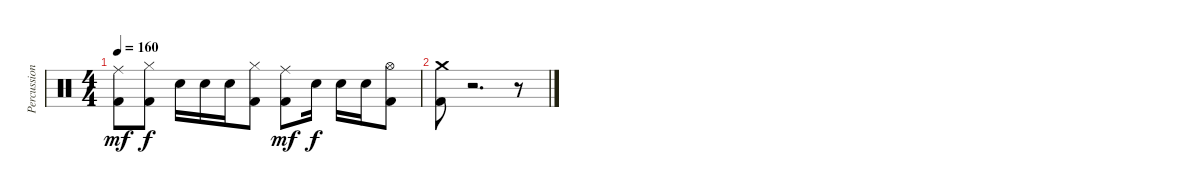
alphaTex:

\track ("Percussions" "Percussion") {instrument percussion}
\staff {score}
\articulation defaults
\ts (4 4)
\tempo 160
\clef neutral
\ks c
("Ride (middle)" "Kick (hit) 2").8{dy mf} ("Hi-Hat (closed)" "Kick (hit) 2").8{dy f} "Electric Snare (hit)".16 "Electric Snare (hit)".16 "Electric Snare (hit)".16 ("Hi-Hat (closed)" "Kick (hit) 2").8 ("Ride (middle)" "Kick (hit) 2").8{dy mf} "Electric Snare (hit)".16{dy f} "Electric Snare (hit)".16 "Electric Snare (hit)".16 ("Hi-Hat (open)" "Kick (hit) 2").8 |
("Crash medium (hit)" "Kick (hit) 2").8 r.2{d} r.8
